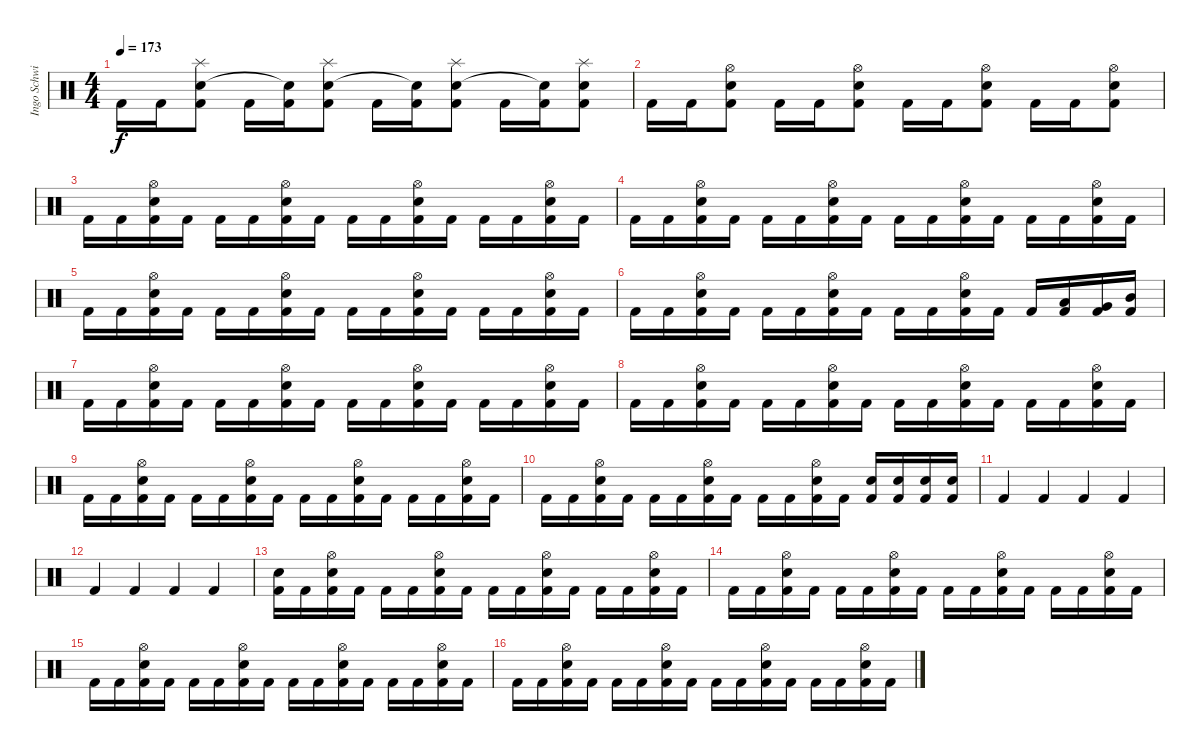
\track ("Ingo Schwichtenberg" "Ingo Schwi") {instrument percussion}
\staff {score}
\articulation defaults
\ts (4 4)
\tempo 173
\clef neutral
\ks c "Kick (hit) 2".16{dy f} "Kick (hit) 2".16
("Kick (hit) 2" "Snare (hit) 2" "Splash (hit)").8 "Kick (hit) 2".16 ("Kick (hit) 2" "Snare (hit)"{t}).16 ("Kick (hit) 2" "Snare (hit) 2" "Splash (hit)").8 "Kick (hit) 2".16 ("Kick (hit) 2" "Snare (hit)"{t}).16 ("Kick (hit) 2" "Snare (hit) 2" "Splash (hit)").8 "Kick (hit) 2".16 ("Kick (hit) 2" "Snare (hit)"{t}).16 ("Kick (hit) 2" "Snare (hit) 2" "Splash (hit)").8 |
"Kick (hit) 2".16 "Kick (hit) 2".16 ("Kick (hit) 2" "Snare (hit) 2" "Hi-Hat (open)").8 "Kick (hit) 2".16 "Kick (hit) 2".16 ("Kick (hit) 2" "Snare (hit) 2" "Hi-Hat (open)").8 "Kick (hit) 2".16 "Kick (hit) 2".16 ("Kick (hit) 2" "Snare (hit) 2" "Hi-Hat (open)").8 "Kick (hit) 2".16 "Kick (hit) 2".16 ("Kick (hit) 2" "Snare (hit) 2" "Hi-Hat (open)").8 |
"Kick (hit) 2".16 "Kick (hit) 2".16 ("Kick (hit) 2" "Snare (hit) 2" "Hi-Hat (open)").16 "Kick (hit) 2".16 "Kick (hit) 2".16 "Kick (hit) 2".16 ("Kick (hit) 2" "Snare (hit) 2" "Hi-Hat (open)").16 "Kick (hit) 2".16 "Kick (hit) 2".16 "Kick (hit) 2".16 ("Kick (hit) 2" "Snare (hit) 2" "Hi-Hat (open)").16 "Kick (hit) 2".16 "Kick (hit) 2".16 "Kick (hit) 2".16 ("Kick (hit) 2" "Snare (hit) 2" "Hi-Hat (open)").16 "Kick (hit) 2".16 |
"Kick (hit) 2".16 "Kick (hit) 2".16 ("Kick (hit) 2" "Snare (hit) 2" "Hi-Hat (open)").16 "Kick (hit) 2".16 "Kick (hit) 2".16 "Kick (hit) 2".16 ("Kick (hit) 2" "Snare (hit) 2" "Hi-Hat (open)").16 "Kick (hit) 2".16 "Kick (hit) 2".16 "Kick (hit) 2".16 ("Kick (hit) 2" "Snare (hit) 2" "Hi-Hat (open)").16 "Kick (hit) 2".16 "Kick (hit) 2".16 "Kick (hit) 2".16 ("Kick (hit) 2" "Snare (hit) 2" "Hi-Hat (open)").16 "Kick (hit) 2".16 |
"Kick (hit) 2".16 "Kick (hit) 2".16 ("Kick (hit) 2" "Snare (hit) 2" "Hi-Hat (open)").16 "Kick (hit) 2".16 "Kick (hit) 2".16 "Kick (hit) 2".16 ("Kick (hit) 2" "Snare (hit) 2" "Hi-Hat (open)").16 "Kick (hit) 2".16 "Kick (hit) 2".16 "Kick (hit) 2".16 ("Kick (hit) 2" "Snare (hit) 2" "Hi-Hat (open)").16 "Kick (hit) 2".16 "Kick (hit) 2".16 "Kick (hit) 2".16 ("Kick (hit) 2" "Snare (hit) 2" "Hi-Hat (open)").16 "Kick (hit) 2".16 |
"Kick (hit) 2".16 "Kick (hit) 2".16 ("Kick (hit) 2" "Snare (hit) 2" "Hi-Hat (open)").16 "Kick (hit) 2".16 "Kick (hit) 2".16 "Kick (hit) 2".16 ("Kick (hit) 2" "Snare (hit) 2" "Hi-Hat (open)").16 "Kick (hit) 2".16 "Kick (hit) 2".16 "Kick (hit) 2".16 ("Kick (hit) 2" "Snare (hit) 2" "Hi-Hat (open)").16 "Kick (hit) 2".16 "Kick (hit) 2".16 ("Kick (hit) 2" "Low Tom (hit)").16 ("Kick (hit) 2" "Very Low Tom (hit)").16 ("Kick (hit) 2" "Mid Tom (hit)").16 |
"Kick (hit) 2".16 "Kick (hit) 2".16 ("Kick (hit) 2" "Snare (hit) 2" "Hi-Hat (open)").16 "Kick (hit) 2".16 "Kick (hit) 2".16 "Kick (hit) 2".16 ("Kick (hit) 2" "Snare (hit) 2" "Hi-Hat (open)").16 "Kick (hit) 2".16 "Kick (hit) 2".16 "Kick (hit) 2".16 ("Kick (hit) 2" "Snare (hit) 2" "Hi-Hat (open)").16 "Kick (hit) 2".16 "Kick (hit) 2".16 "Kick (hit) 2".16 ("Kick (hit) 2" "Snare (hit) 2" "Hi-Hat (open)").16 "Kick (hit) 2".16 |
"Kick (hit) 2".16 "Kick (hit) 2".16 ("Kick (hit) 2" "Snare (hit) 2" "Hi-Hat (open)").16 "Kick (hit) 2".16 "Kick (hit) 2".16 "Kick (hit) 2".16 ("Kick (hit) 2" "Snare (hit) 2" "Hi-Hat (open)").16 "Kick (hit) 2".16 "Kick (hit) 2".16 "Kick (hit) 2".16 ("Kick (hit) 2" "Snare (hit) 2" "Hi-Hat (open)").16 "Kick (hit) 2".16 "Kick (hit) 2".16 "Kick (hit) 2".16 ("Kick (hit) 2" "Snare (hit) 2" "Hi-Hat (open)").16 "Kick (hit) 2".16 |
"Kick (hit) 2".16 "Kick (hit) 2".16 ("Kick (hit) 2" "Snare (hit) 2" "Hi-Hat (open)").16 "Kick (hit) 2".16 "Kick (hit) 2".16 "Kick (hit) 2".16 ("Kick (hit) 2" "Snare (hit) 2" "Hi-Hat (open)").16 "Kick (hit) 2".16 "Kick (hit) 2".16 "Kick (hit) 2".16 ("Kick (hit) 2" "Snare (hit) 2" "Hi-Hat (open)").16 "Kick (hit) 2".16 "Kick (hit) 2".16 "Kick (hit) 2".16 ("Kick (hit) 2" "Snare (hit) 2" "Hi-Hat (open)").16 "Kick (hit) 2".16 |
"Kick (hit) 2".16 "Kick (hit) 2".16 ("Kick (hit) 2" "Snare (hit) 2" "Hi-Hat (open)").16 "Kick (hit) 2".16 "Kick (hit) 2".16 "Kick (hit) 2".16 ("Kick (hit) 2" "Snare (hit) 2" "Hi-Hat (open)").16 "Kick (hit) 2".16 "Kick (hit) 2".16 "Kick (hit) 2".16 ("Kick (hit) 2" "Snare (hit) 2" "Hi-Hat (open)").16 "Kick (hit) 2".16 ("Kick (hit) 2" "Snare (hit) 2").16 ("Kick (hit) 2" "Snare (hit) 2").16 ("Kick (hit) 2" "Snare (hit) 2").16 ("Kick (hit) 2" "Snare (hit) 2").16 |
"Kick (hit) 2".4 "Kick (hit) 2".4 "Kick (hit) 2".4 "Kick (hit) 2".4 |
"Kick (hit) 2".4 "Kick (hit) 2".4 "Kick (hit) 2".4 "Kick (hit) 2".4 |
("Kick (hit) 2" "Snare (hit) 2").16 "Kick (hit) 2".16 ("Kick (hit) 2" "Snare (hit) 2" "Hi-Hat (open)").16 "Kick (hit) 2".16 "Kick (hit) 2".16 "Kick (hit) 2".16 ("Kick (hit) 2" "Snare (hit) 2" "Hi-Hat (open)").16 "Kick (hit) 2".16 "Kick (hit) 2".16 "Kick (hit) 2".16 ("Kick (hit) 2" "Snare (hit) 2" "Hi-Hat (open)").16 "Kick (hit) 2".16 "Kick (hit) 2".16 "Kick (hit) 2".16 ("Kick (hit) 2" "Snare (hit) 2" "Hi-Hat (open)").16 "Kick (hit) 2".16 |
"Kick (hit) 2".16 "Kick (hit) 2".16 ("Kick (hit) 2" "Snare (hit) 2" "Hi-Hat (open)").16 "Kick (hit) 2".16 "Kick (hit) 2".16 "Kick (hit) 2".16 ("Kick (hit) 2" "Snare (hit) 2" "Hi-Hat (open)").16 "Kick (hit) 2".16 "Kick (hit) 2".16 "Kick (hit) 2".16 ("Kick (hit) 2" "Snare (hit) 2" "Hi-Hat (open)").16 "Kick (hit) 2".16 "Kick (hit) 2".16 "Kick (hit) 2".16 ("Kick (hit) 2" "Snare (hit) 2" "Hi-Hat (open)").16 "Kick (hit) 2".16 |
"Kick (hit) 2".16 "Kick (hit) 2".16 ("Kick (hit) 2" "Snare (hit) 2" "Hi-Hat (open)").16 "Kick (hit) 2".16 "Kick (hit) 2".16 "Kick (hit) 2".16 ("Kick (hit) 2" "Snare (hit) 2" "Hi-Hat (open)").16 "Kick (hit) 2".16 "Kick (hit) 2".16 "Kick (hit) 2".16 ("Kick (hit) 2" "Snare (hit) 2" "Hi-Hat (open)").16 "Kick (hit) 2".16 "Kick (hit) 2".16 "Kick (hit) 2".16 ("Kick (hit) 2" "Snare (hit) 2" "Hi-Hat (open)").16 "Kick (hit) 2".16 |
"Kick (hit) 2".16 "Kick (hit) 2".16 ("Kick (hit) 2" "Snare (hit) 2" "Hi-Hat (open)").16 "Kick (hit) 2".16 "Kick (hit) 2".16 "Kick (hit) 2".16 ("Kick (hit) 2" "Snare (hit) 2" "Hi-Hat (open)").16 "Kick (hit) 2".16 "Kick (hit) 2".16 "Kick (hit) 2".16 ("Kick (hit) 2" "Snare (hit) 2" "Hi-Hat (open)").16 "Kick (hit) 2".16 "Kick (hit) 2".16 "Kick (hit) 2".16 ("Kick (hit) 2" "Snare (hit) 2" "Hi-Hat (open)").16 "Kick (hit) 2".16
